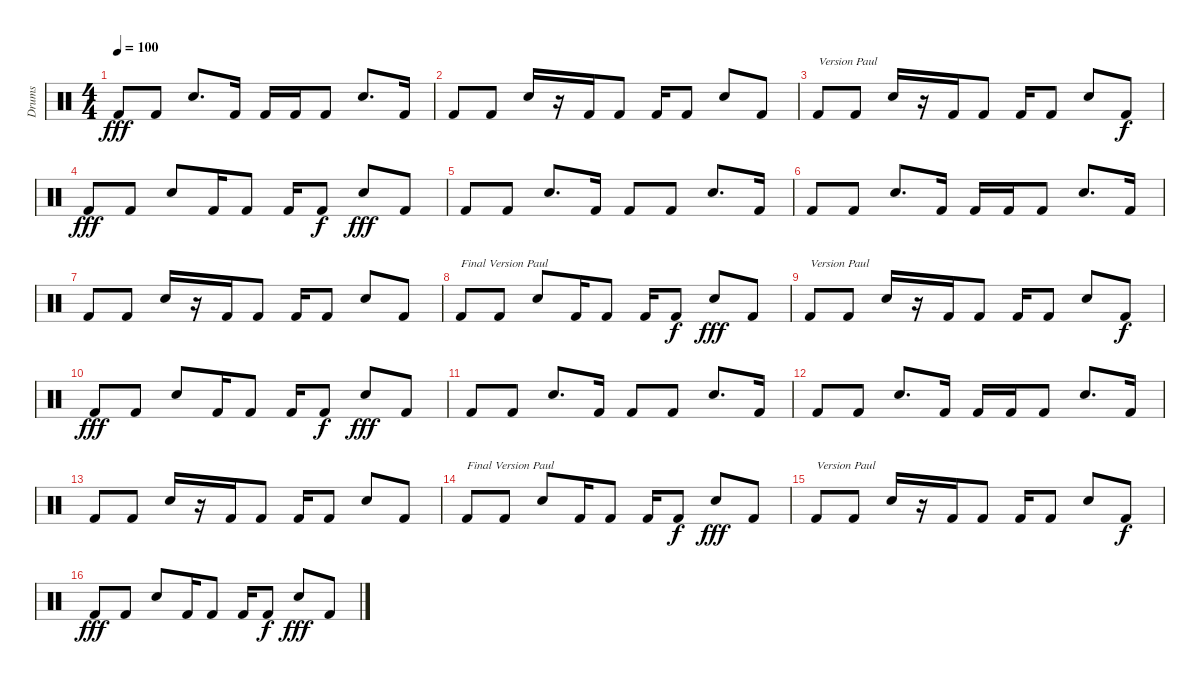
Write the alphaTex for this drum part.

\track ("Drums" "Drums") {instrument percussion}
\staff {score}
\articulation defaults
\ts (4 4)
\tempo 100
\clef neutral
\ks c "Kick (hit) 2".8{dy fff} "Kick (hit) 2".8 "Electric Snare (hit)".8{d} "Kick (hit) 2".16 "Kick (hit) 2".16 "Kick (hit) 2".16 "Kick (hit) 2".8 "Electric Snare (hit)".8{d} "Kick (hit) 2".16
|
"Kick (hit) 2".8 "Kick (hit) 2".8 "Electric Snare (hit)".16 r.16 "Kick (hit) 2".16 "Kick (hit) 2".8 "Kick (hit) 2".16 "Kick (hit) 2".8 "Electric Snare (hit)".8 "Kick (hit) 2".8 |
"Kick (hit) 2".8{txt "Version Paul"} "Kick (hit) 2".8 "Electric Snare (hit)".16 r.16 "Kick (hit) 2".16 "Kick (hit) 2".8 "Kick (hit) 2".16 "Kick (hit) 2".8 "Electric Snare (hit)".8 "Kick (hit) 2".8{dy f} |
"Kick (hit) 2".8{dy fff} "Kick (hit) 2".8 "Electric Snare (hit)".8 "Kick (hit) 2".16 "Kick (hit) 2".8 "Kick (hit) 2".16 "Kick (hit) 2".8{dy f} "Electric Snare (hit)".8{dy fff} "Kick (hit) 2".8 |
"Kick (hit) 2".8 "Kick (hit) 2".8 "Electric Snare (hit)".8{d} "Kick (hit) 2".16 "Kick (hit) 2".8 "Kick (hit) 2".8 "Electric Snare (hit)".8{d} "Kick (hit) 2".16 |
"Kick (hit) 2".8 "Kick (hit) 2".8 "Electric Snare (hit)".8{d} "Kick (hit) 2".16 "Kick (hit) 2".16 "Kick (hit) 2".16 "Kick (hit) 2".8 "Electric Snare (hit)".8{d} "Kick (hit) 2".16 |
"Kick (hit) 2".8 "Kick (hit) 2".8 "Electric Snare (hit)".16 r.16 "Kick (hit) 2".16 "Kick (hit) 2".8 "Kick (hit) 2".16 "Kick (hit) 2".8 "Electric Snare (hit)".8 "Kick (hit) 2".8 |
"Kick (hit) 2".8{txt "Final Version Paul"} "Kick (hit) 2".8 "Electric Snare (hit)".8 "Kick (hit) 2".16 "Kick (hit) 2".8 "Kick (hit) 2".16 "Kick (hit) 2".8{dy f} "Electric Snare (hit)".8{dy fff} "Kick (hit) 2".8 |
"Kick (hit) 2".8{txt "Version Paul"} "Kick (hit) 2".8 "Electric Snare (hit)".16 r.16 "Kick (hit) 2".16 "Kick (hit) 2".8 "Kick (hit) 2".16 "Kick (hit) 2".8 "Electric Snare (hit)".8 "Kick (hit) 2".8{dy f} |
"Kick (hit) 2".8{dy fff} "Kick (hit) 2".8 "Electric Snare (hit)".8 "Kick (hit) 2".16 "Kick (hit) 2".8 "Kick (hit) 2".16 "Kick (hit) 2".8{dy f} "Electric Snare (hit)".8{dy fff} "Kick (hit) 2".8 |
"Kick (hit) 2".8 "Kick (hit) 2".8 "Electric Snare (hit)".8{d} "Kick (hit) 2".16 "Kick (hit) 2".8 "Kick (hit) 2".8 "Electric Snare (hit)".8{d} "Kick (hit) 2".16 |
"Kick (hit) 2".8 "Kick (hit) 2".8 "Electric Snare (hit)".8{d} "Kick (hit) 2".16 "Kick (hit) 2".16 "Kick (hit) 2".16 "Kick (hit) 2".8 "Electric Snare (hit)".8{d} "Kick (hit) 2".16 |
"Kick (hit) 2".8 "Kick (hit) 2".8 "Electric Snare (hit)".16 r.16 "Kick (hit) 2".16 "Kick (hit) 2".8 "Kick (hit) 2".16 "Kick (hit) 2".8 "Electric Snare (hit)".8 "Kick (hit) 2".8 |
"Kick (hit) 2".8{txt "Final Version Paul"} "Kick (hit) 2".8 "Electric Snare (hit)".8 "Kick (hit) 2".16 "Kick (hit) 2".8 "Kick (hit) 2".16 "Kick (hit) 2".8{dy f} "Electric Snare (hit)".8{dy fff} "Kick (hit) 2".8 |
"Kick (hit) 2".8{txt "Version Paul"} "Kick (hit) 2".8 "Electric Snare (hit)".16 r.16 "Kick (hit) 2".16 "Kick (hit) 2".8 "Kick (hit) 2".16 "Kick (hit) 2".8 "Electric Snare (hit)".8 "Kick (hit) 2".8{dy f} |
"Kick (hit) 2".8{dy fff} "Kick (hit) 2".8 "Electric Snare (hit)".8 "Kick (hit) 2".16 "Kick (hit) 2".8 "Kick (hit) 2".16 "Kick (hit) 2".8{dy f} "Electric Snare (hit)".8{dy fff} "Kick (hit) 2".8
